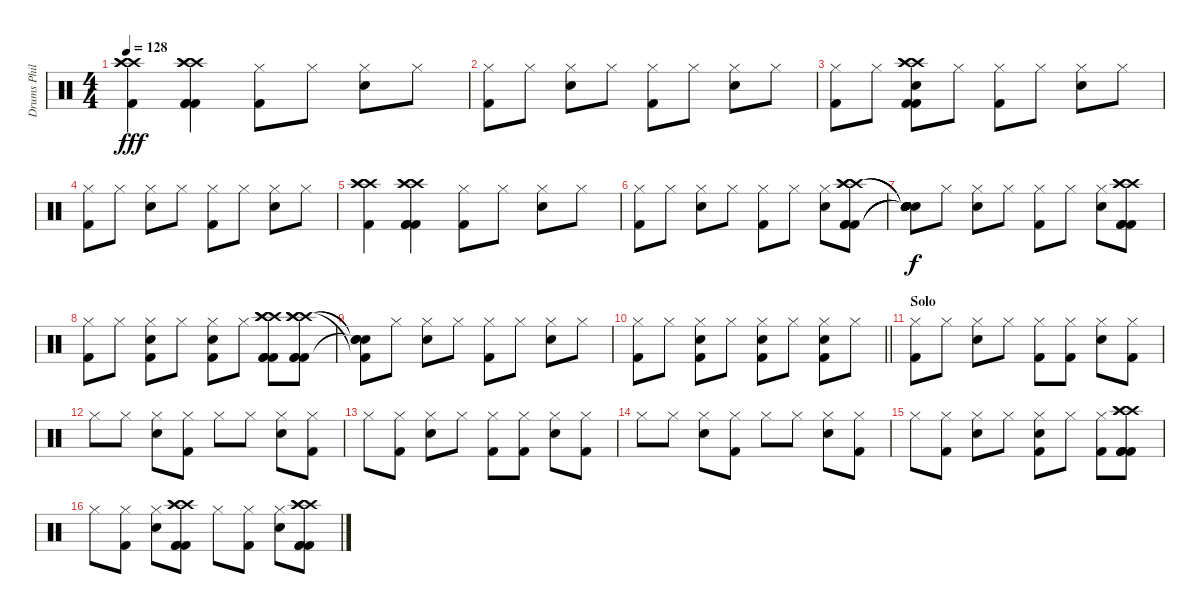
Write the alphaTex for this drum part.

\track ("Drums Phil Rudd" "Drums Phil") {instrument percussion}
\staff {score}
\articulation defaults
\ts (4 4)
\tempo 128
\clef neutral
\ks c
("Crash high (hit)" "Crash high (hit)" "Crash high (hit)" "Kick (hit) 2").4{dy fff} ("Crash high (hit)" "Crash high (hit)" "Crash high (hit)" "Kick (hit) 2" "Kick (hit) 2" "Kick (hit) 2").4 ("Hi-Hat (closed)" "Kick (hit) 2").8 "Hi-Hat (closed)".8 ("Hi-Hat (closed)" "Electric Snare (hit)").8 "Hi-Hat (closed)".8 |
("Hi-Hat (closed)" "Kick (hit) 2").8 "Hi-Hat (closed)".8 ("Hi-Hat (closed)" "Electric Snare (hit)").8 "Hi-Hat (closed)".8 ("Hi-Hat (closed)" "Kick (hit) 2").8 "Hi-Hat (closed)".8 ("Hi-Hat (closed)" "Electric Snare (hit)").8 "Hi-Hat (closed)".8 |
("Hi-Hat (closed)" "Kick (hit) 2").8 "Hi-Hat (closed)".8 ("Crash high (hit)" "Crash high (hit)" "Crash high (hit)" "Electric Snare (hit)" "Kick (hit) 2" "Kick (hit) 2").8 "Hi-Hat (closed)".8 ("Hi-Hat (closed)" "Kick (hit) 2").8 "Hi-Hat (closed)".8 ("Hi-Hat (closed)" "Electric Snare (hit)").8 "Hi-Hat (closed)".8 |
("Hi-Hat (closed)" "Kick (hit) 2").8 "Hi-Hat (closed)".8 ("Hi-Hat (closed)" "Electric Snare (hit)").8 "Hi-Hat (closed)".8 ("Hi-Hat (closed)" "Kick (hit) 2").8 "Hi-Hat (closed)".8 ("Hi-Hat (closed)" "Electric Snare (hit)").8 "Hi-Hat (closed)".8 |
("Crash high (hit)" "Crash high (hit)" "Crash high (hit)" "Kick (hit) 2").4 ("Crash high (hit)" "Crash high (hit)" "Crash high (hit)" "Kick (hit) 2" "Kick (hit) 2" "Kick (hit) 2").4 ("Hi-Hat (closed)" "Kick (hit) 2").8 "Hi-Hat (closed)".8 ("Hi-Hat (closed)" "Electric Snare (hit)").8 "Hi-Hat (closed)".8 |
("Hi-Hat (closed)" "Kick (hit) 2").8 "Hi-Hat (closed)".8 ("Hi-Hat (closed)" "Electric Snare (hit)").8 "Hi-Hat (closed)".8 ("Hi-Hat (closed)" "Kick (hit) 2").8 "Hi-Hat (closed)".8 ("Hi-Hat (closed)" "Electric Snare (hit)").8 ("Crash high (hit)" "Crash high (hit)" "Crash high (hit)" "Kick (hit) 2" "Kick (hit) 2" "Kick (hit) 2").8 |
("Snare (hit)"{t} "Snare (hit)"{t} "Snare (hit)"{t} "Snare (hit)"{t} "Snare (hit)"{t} "Snare (hit)"{t}).8{dy f} "Hi-Hat (closed)".8 ("Hi-Hat (closed)" "Electric Snare (hit)").8 "Hi-Hat (closed)".8 ("Hi-Hat (closed)" "Kick (hit) 2").8 "Hi-Hat (closed)".8 ("Hi-Hat (closed)" "Electric Snare (hit)").8 ("Crash high (hit)" "Crash high (hit)" "Crash high (hit)" "Kick (hit) 2" "Kick (hit) 2" "Kick (hit) 2").8 |
("Hi-Hat (closed)" "Kick (hit) 2").8 "Hi-Hat (closed)".8 ("Hi-Hat (closed)" "Electric Snare (hit)" "Kick (hit) 2").8 "Hi-Hat (closed)".8 ("Hi-Hat (closed)" "Electric Snare (hit)" "Kick (hit) 2").8 "Hi-Hat (closed)".8 ("Crash high (hit)" "Crash high (hit)" "Crash high (hit)" "Kick (hit) 2" "Kick (hit) 2" "Kick (hit) 2").8 ("Crash high (hit)" "Crash high (hit)" "Crash high (hit)" "Kick (hit) 2" "Kick (hit) 2" "Kick (hit) 2").8 |
("Snare (hit)"{t} "Snare (hit)"{t} "Kick (hit) 2"{t} "Snare (hit)"{t}).8 "Hi-Hat (closed)".8 ("Hi-Hat (closed)" "Electric Snare (hit)").8 "Hi-Hat (closed)".8 ("Hi-Hat (closed)" "Kick (hit) 2").8 "Hi-Hat (closed)".8 ("Hi-Hat (closed)" "Electric Snare (hit)").8 "Hi-Hat (closed)".8 |
\barLineRight lightlight
("Hi-Hat (closed)" "Kick (hit) 2").8 "Hi-Hat (closed)".8 ("Hi-Hat (closed)" "Electric Snare (hit)" "Kick (hit) 2").8 "Hi-Hat (closed)".8 ("Hi-Hat (closed)" "Electric Snare (hit)" "Kick (hit) 2").8 "Hi-Hat (closed)".8 ("Hi-Hat (closed)" "Electric Snare (hit)" "Kick (hit) 2").8 "Hi-Hat (closed)".8 |
\section ("" "Solo")
("Hi-Hat (closed)" "Kick (hit) 2").8 "Hi-Hat (closed)".8 ("Hi-Hat (closed)" "Electric Snare (hit)").8 "Hi-Hat (closed)".8 ("Hi-Hat (closed)" "Kick (hit) 2").8 ("Hi-Hat (closed)" "Kick (hit) 2").8 ("Hi-Hat (closed)" "Electric Snare (hit)").8 ("Hi-Hat (closed)" "Kick (hit) 2").8 |
"Hi-Hat (closed)".8 "Hi-Hat (closed)".8 ("Hi-Hat (closed)" "Electric Snare (hit)").8 ("Hi-Hat (closed)" "Kick (hit) 2").8 "Hi-Hat (closed)".8 "Hi-Hat (closed)".8 ("Hi-Hat (closed)" "Electric Snare (hit)").8 ("Hi-Hat (closed)" "Kick (hit) 2").8 |
"Hi-Hat (closed)".8 ("Hi-Hat (closed)" "Kick (hit) 2").8 ("Hi-Hat (closed)" "Electric Snare (hit)").8 "Hi-Hat (closed)".8 ("Hi-Hat (closed)" "Kick (hit) 2").8 ("Hi-Hat (closed)" "Kick (hit) 2").8 ("Hi-Hat (closed)" "Electric Snare (hit)").8 ("Hi-Hat (closed)" "Kick (hit) 2").8 |
"Hi-Hat (closed)".8 "Hi-Hat (closed)".8 ("Hi-Hat (closed)" "Electric Snare (hit)").8 ("Hi-Hat (closed)" "Kick (hit) 2").8 "Hi-Hat (closed)".8 "Hi-Hat (closed)".8 ("Hi-Hat (closed)" "Electric Snare (hit)").8 ("Hi-Hat (closed)" "Kick (hit) 2").8 |
"Hi-Hat (closed)".8 ("Hi-Hat (closed)" "Kick (hit) 2").8 ("Hi-Hat (closed)" "Electric Snare (hit)").8 "Hi-Hat (closed)".8 ("Hi-Hat (closed)" "Electric Snare (hit)" "Kick (hit) 2").8 "Hi-Hat (closed)".8 ("Hi-Hat (closed)" "Kick (hit) 2").8 ("Crash high (hit)" "Crash high (hit)" "Crash high (hit)" "Kick (hit) 2" "Kick (hit) 2" "Kick (hit) 2").8 |
"Hi-Hat (closed)".8 ("Hi-Hat (closed)" "Kick (hit) 2").8 ("Hi-Hat (closed)" "Electric Snare (hit)").8 ("Crash high (hit)" "Crash high (hit)" "Crash high (hit)" "Kick (hit) 2" "Kick (hit) 2" "Kick (hit) 2").8 "Hi-Hat (closed)".8 ("Hi-Hat (closed)" "Kick (hit) 2").8 ("Hi-Hat (closed)" "Electric Snare (hit)").8 ("Crash high (hit)" "Crash high (hit)" "Crash high (hit)" "Kick (hit) 2" "Kick (hit) 2" "Kick (hit) 2").8
